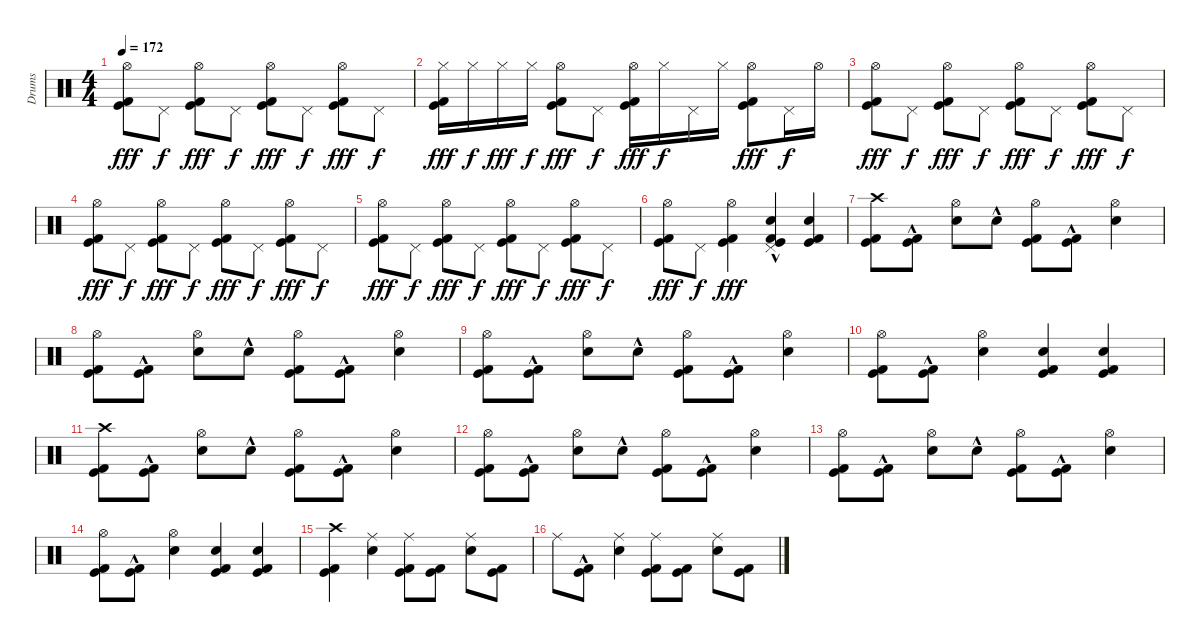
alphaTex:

\track ("Drums" "Drums") {instrument percussion}
\staff {score}
\articulation defaults
\ts (4 4)
\tempo 172
\clef neutral
\ks c
("Kick (hit)" "Kick (hit) 2" "Hi-Hat (open)").8{dy fff} "Pedal Hi-Hat (hit)".8{dy f} ("Kick (hit)" "Kick (hit) 2" "Hi-Hat (open)").8{dy fff} "Pedal Hi-Hat (hit)".8{dy f} ("Kick (hit)" "Kick (hit) 2" "Hi-Hat (open)").8{dy fff} "Pedal Hi-Hat (hit)".8{dy f} ("Kick (hit)" "Kick (hit) 2" "Hi-Hat (open)").8{dy fff} "Pedal Hi-Hat (hit)".8{dy f} |
("Kick (hit)" "Kick (hit) 2" "Hi-Hat (closed)").16{dy fff} "Hi-Hat (closed)".16{dy f} "Hi-Hat (closed)".16{dy fff} "Hi-Hat (closed)".16{dy f} ("Kick (hit)" "Kick (hit) 2" "Hi-Hat (open)").8{dy fff} "Pedal Hi-Hat (hit)".8{dy f} ("Kick (hit)" "Kick (hit) 2" "Hi-Hat (open)").16{dy fff} "Hi-Hat (closed)".16{dy f} "Pedal Hi-Hat (hit)".16 "Hi-Hat (closed)".16 ("Kick (hit)" "Kick (hit) 2" "Hi-Hat (open)").8{dy fff} "Pedal Hi-Hat (hit)".16{dy f} "Hi-Hat (open)".16 |
("Kick (hit)" "Kick (hit) 2" "Hi-Hat (open)").8{dy fff} "Pedal Hi-Hat (hit)".8{dy f} ("Kick (hit)" "Kick (hit) 2" "Hi-Hat (open)").8{dy fff} "Pedal Hi-Hat (hit)".8{dy f} ("Kick (hit)" "Kick (hit) 2" "Hi-Hat (open)").8{dy fff} "Pedal Hi-Hat (hit)".8{dy f} ("Kick (hit)" "Kick (hit) 2" "Hi-Hat (open)").8{dy fff} "Pedal Hi-Hat (hit)".8{dy f} |
("Kick (hit)" "Kick (hit) 2" "Hi-Hat (open)").8{dy fff} "Pedal Hi-Hat (hit)".8{dy f} ("Kick (hit)" "Kick (hit) 2" "Hi-Hat (open)").8{dy fff} "Pedal Hi-Hat (hit)".8{dy f} ("Kick (hit)" "Kick (hit) 2" "Hi-Hat (open)").8{dy fff} "Pedal Hi-Hat (hit)".8{dy f} ("Kick (hit)" "Kick (hit) 2" "Hi-Hat (open)").8{dy fff} "Pedal Hi-Hat (hit)".8{dy f} |
("Kick (hit)" "Kick (hit) 2" "Hi-Hat (open)").8{dy fff} "Pedal Hi-Hat (hit)".8{dy f} ("Kick (hit)" "Kick (hit) 2" "Hi-Hat (open)").8{dy fff} "Pedal Hi-Hat (hit)".8{dy f} ("Kick (hit)" "Kick (hit) 2" "Hi-Hat (open)").8{dy fff} "Pedal Hi-Hat (hit)".8{dy f} ("Kick (hit)" "Kick (hit) 2" "Hi-Hat (open)").8{dy fff} "Pedal Hi-Hat (hit)".8{dy f} |
("Kick (hit)" "Kick (hit) 2" "Hi-Hat (open)").8{dy fff} "Pedal Hi-Hat (hit)".8{dy f} ("Kick (hit)" "Kick (hit) 2" "Hi-Hat (open)").4{dy fff} ("Kick (hit)" "Kick (hit) 2" "Electric Snare (hit)" "Pedal Hi-Hat (hit)"{hac}).4 ("Kick (hit)" "Kick (hit) 2" "Electric Snare (hit)").4 |
("Kick (hit)" "Kick (hit) 2" "Crash high (hit)").8 ("Kick (hit)"{hac} "Kick (hit) 2"{hac}).8 ("Electric Snare (hit)" "Hi-Hat (open)").8 "Electric Snare (hit)"{hac}.8 ("Kick (hit)" "Kick (hit) 2" "Hi-Hat (open)").8 ("Kick (hit)"{hac} "Kick (hit) 2"{hac}).8 ("Electric Snare (hit)" "Hi-Hat (open)").4 |
("Kick (hit)" "Kick (hit) 2" "Hi-Hat (open)").8 ("Kick (hit)"{hac} "Kick (hit) 2"{hac}).8 ("Electric Snare (hit)" "Hi-Hat (open)").8 "Electric Snare (hit)"{hac}.8 ("Kick (hit)" "Kick (hit) 2" "Hi-Hat (open)").8 ("Kick (hit)"{hac} "Kick (hit) 2"{hac}).8 ("Electric Snare (hit)" "Hi-Hat (open)").4 |
("Kick (hit)" "Kick (hit) 2" "Hi-Hat (open)").8 ("Kick (hit)"{hac} "Kick (hit) 2"{hac}).8 ("Electric Snare (hit)" "Hi-Hat (open)").8 "Electric Snare (hit)"{hac}.8 ("Kick (hit)" "Kick (hit) 2" "Hi-Hat (open)").8 ("Kick (hit)"{hac} "Kick (hit) 2"{hac}).8 ("Electric Snare (hit)" "Hi-Hat (open)").4 |
("Kick (hit)" "Kick (hit) 2" "Hi-Hat (open)").8 ("Kick (hit)"{hac} "Kick (hit) 2"{hac}).8 ("Electric Snare (hit)" "Hi-Hat (open)").4 ("Kick (hit)" "Kick (hit) 2" "Electric Snare (hit)").4 ("Kick (hit)" "Kick (hit) 2" "Electric Snare (hit)").4 |
("Kick (hit)" "Kick (hit) 2" "Crash high (hit)").8 ("Kick (hit)"{hac} "Kick (hit) 2"{hac}).8 ("Electric Snare (hit)" "Hi-Hat (open)").8 "Electric Snare (hit)"{hac}.8 ("Kick (hit)" "Kick (hit) 2" "Hi-Hat (open)").8 ("Kick (hit)"{hac} "Kick (hit) 2"{hac}).8 ("Electric Snare (hit)" "Hi-Hat (open)").4 |
("Kick (hit)" "Kick (hit) 2" "Hi-Hat (open)").8 ("Kick (hit)"{hac} "Kick (hit) 2"{hac}).8 ("Electric Snare (hit)" "Hi-Hat (open)").8 "Electric Snare (hit)"{hac}.8 ("Kick (hit)" "Kick (hit) 2" "Hi-Hat (open)").8 ("Kick (hit)"{hac} "Kick (hit) 2"{hac}).8 ("Electric Snare (hit)" "Hi-Hat (open)").4 |
("Kick (hit)" "Kick (hit) 2" "Hi-Hat (open)").8 ("Kick (hit)"{hac} "Kick (hit) 2"{hac}).8 ("Electric Snare (hit)" "Hi-Hat (open)").8 "Electric Snare (hit)"{hac}.8 ("Kick (hit)" "Kick (hit) 2" "Hi-Hat (open)").8 ("Kick (hit)"{hac} "Kick (hit) 2"{hac}).8 ("Electric Snare (hit)" "Hi-Hat (open)").4 |
("Kick (hit)" "Kick (hit) 2" "Hi-Hat (open)").8 ("Kick (hit)"{hac} "Kick (hit) 2"{hac}).8 ("Electric Snare (hit)" "Hi-Hat (open)").4 ("Kick (hit)" "Kick (hit) 2" "Electric Snare (hit)").4 ("Kick (hit)" "Kick (hit) 2" "Electric Snare (hit)").4 |
("Kick (hit)" "Kick (hit) 2" "Crash high (hit)").4 ("Electric Snare (hit)" "Ride (middle)").4 ("Kick (hit)" "Kick (hit) 2" "Ride (middle)").8 ("Kick (hit)" "Kick (hit) 2").8 ("Electric Snare (hit)" "Ride (middle)").8 ("Kick (hit)" "Kick (hit) 2").8 |
"Ride (middle)".8 ("Kick (hit)"{hac} "Kick (hit) 2"{hac}).8 ("Electric Snare (hit)" "Ride (middle)").4 ("Kick (hit)" "Kick (hit) 2" "Ride (middle)").8 ("Kick (hit)" "Kick (hit) 2").8 ("Electric Snare (hit)" "Ride (middle)").8 ("Kick (hit)" "Kick (hit) 2").8
